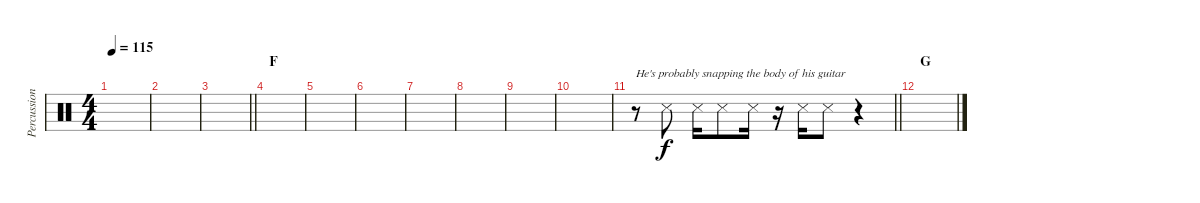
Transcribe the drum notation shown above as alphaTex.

\track ("Percussion" "Percussion") {instrument percussion}
\staff {score}
\articulation defaults
\ts (4 4)
\tempo 115
\clef neutral
\ks c
|
|
\barLineRight lightlight
|
\section ("" "F")
|
|
|
|
|
|
|
\barLineRight lightlight
r.8{txt "He's probably snapping the body of his guitar"} "Metronome (hit)".8 "Metronome (hit)".16 "Metronome (hit)".8 "Metronome (hit)".16 r.16 "Metronome (hit)".16 "Metronome (hit)".8 r.4 |
\section ("" "G")
